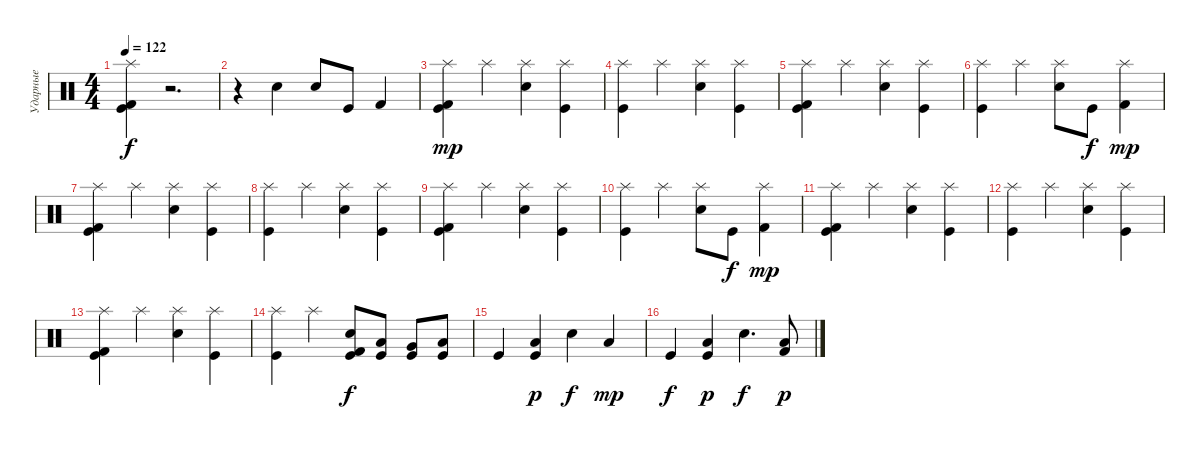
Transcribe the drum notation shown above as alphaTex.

\track ("Ударные" "Ударные") {instrument percussion}
\staff {score}
\articulation defaults
\ts (4 4)
\tempo 122
\clef neutral
\ks c
("Splash (hit)" "Kick (hit) 2" "Kick (hit)").4{dy f} r.2{d} |
r.4 "Electric Snare (hit)".4 "Electric Snare (hit)".8 "Kick (hit)".8 "Kick (hit) 2".4 |
("Splash (hit)" "Kick (hit) 2" "Kick (hit)").4{dy mp} "Splash (hit)".4 ("Splash (hit)" "Electric Snare (hit)").4 ("Splash (hit)" "Kick (hit)").4 |
("Splash (hit)" "Kick (hit)").4 "Splash (hit)".4 ("Splash (hit)" "Electric Snare (hit)").4 ("Splash (hit)" "Kick (hit)").4 |
("Splash (hit)" "Kick (hit) 2" "Kick (hit)").4 "Splash (hit)".4 ("Splash (hit)" "Electric Snare (hit)").4 ("Splash (hit)" "Kick (hit)").4 |
("Splash (hit)" "Kick (hit)").4 "Splash (hit)".4 ("Splash (hit)" "Electric Snare (hit)").8 "Kick (hit)".8{dy f} ("Splash (hit)" "Kick (hit) 2").4{dy mp} |
("Splash (hit)" "Kick (hit) 2" "Kick (hit)").4 "Splash (hit)".4 ("Splash (hit)" "Electric Snare (hit)").4 ("Splash (hit)" "Kick (hit)").4 |
("Splash (hit)" "Kick (hit)").4 "Splash (hit)".4 ("Splash (hit)" "Electric Snare (hit)").4 ("Splash (hit)" "Kick (hit)").4 |
("Splash (hit)" "Kick (hit) 2" "Kick (hit)").4 "Splash (hit)".4 ("Splash (hit)" "Electric Snare (hit)").4 ("Splash (hit)" "Kick (hit)").4 |
("Splash (hit)" "Kick (hit)").4 "Splash (hit)".4 ("Splash (hit)" "Electric Snare (hit)").8 "Kick (hit)".8{dy f} ("Splash (hit)" "Kick (hit) 2").4{dy mp} |
("Splash (hit)" "Kick (hit) 2" "Kick (hit)").4 "Splash (hit)".4 ("Splash (hit)" "Electric Snare (hit)").4 ("Splash (hit)" "Kick (hit)").4 |
("Splash (hit)" "Kick (hit)").4 "Splash (hit)".4 ("Splash (hit)" "Electric Snare (hit)").4 ("Splash (hit)" "Kick (hit)").4 |
("Splash (hit)" "Kick (hit) 2" "Kick (hit)").4 "Splash (hit)".4 ("Splash (hit)" "Electric Snare (hit)").4 ("Splash (hit)" "Kick (hit)").4 |
("Splash (hit)" "Kick (hit)").4 "Splash (hit)".4 ("Electric Snare (hit)" "Kick (hit)" "Kick (hit) 2").8{dy f} ("Low Tom (hit)" "Kick (hit)").8 ("Very Low Tom (hit)" "Kick (hit)").8 ("Low Floor Tom (hit)" "Kick (hit)").8 |
"Kick (hit)".4 ("Low Floor Tom (hit)" "Kick (hit)").4{dy p} "Electric Snare (hit)".4{dy f} "Low Floor Tom (hit)".4{dy mp} |
"Kick (hit)".4{dy f} ("Low Floor Tom (hit)" "Kick (hit)").4{dy p} "Electric Snare (hit)".4{d dy f} ("Low Floor Tom (hit)" "Kick (hit) 2").8{dy p}
